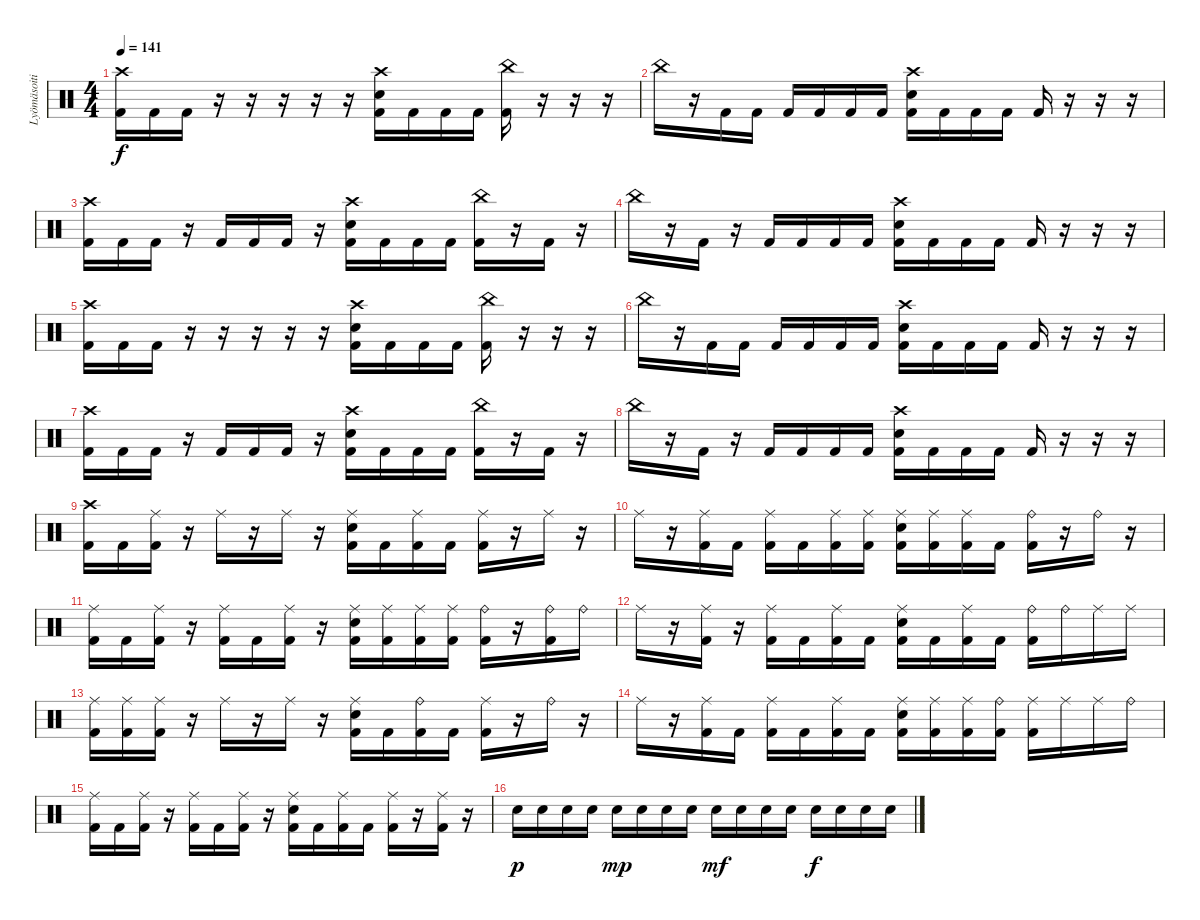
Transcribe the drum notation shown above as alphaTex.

\track ("Lyömäsoitin" "Lyömäsoiti") {instrument percussion}
\staff {score}
\articulation defaults
\ts (4 4)
\tempo 141
\clef neutral
\ks c
("Crash high (hit)" "Kick (hit) 2").16{dy f} "Kick (hit) 2".16 "Kick (hit) 2".16 r.16 r.16 r.16 r.16 r.16 ("Crash high (hit)" "Electric Snare (hit)" "Kick (hit) 2").16 "Kick (hit) 2".16 "Kick (hit) 2".16 "Kick (hit) 2".16 ("China (hit)" "Kick (hit) 2").16 r.16 r.16 r.16 |
"China (hit)".16 r.16 "Kick (hit) 2".16 "Kick (hit) 2".16 "Kick (hit) 2".16 "Kick (hit) 2".16 "Kick (hit) 2".16 "Kick (hit) 2".16 ("Crash high (hit)" "Electric Snare (hit)" "Kick (hit) 2").16 "Kick (hit) 2".16 "Kick (hit) 2".16 "Kick (hit) 2".16 "Kick (hit) 2".16 r.16 r.16 r.16 |
("Crash high (hit)" "Kick (hit) 2").16 "Kick (hit) 2".16 "Kick (hit) 2".16 r.16 "Kick (hit) 2".16 "Kick (hit) 2".16 "Kick (hit) 2".16 r.16 ("Crash high (hit)" "Electric Snare (hit)" "Kick (hit) 2").16 "Kick (hit) 2".16 "Kick (hit) 2".16 "Kick (hit) 2".16 ("China (hit)" "Kick (hit) 2").16 r.16 "Kick (hit) 2".16 r.16 |
"China (hit)".16 r.16 "Kick (hit) 2".16 r.16 "Kick (hit) 2".16 "Kick (hit) 2".16 "Kick (hit) 2".16 "Kick (hit) 2".16 ("Crash high (hit)" "Electric Snare (hit)" "Kick (hit) 2").16 "Kick (hit) 2".16 "Kick (hit) 2".16 "Kick (hit) 2".16 "Kick (hit) 2".16 r.16 r.16 r.16 |
("Crash high (hit)" "Kick (hit) 2").16 "Kick (hit) 2".16 "Kick (hit) 2".16 r.16 r.16 r.16 r.16 r.16 ("Crash high (hit)" "Electric Snare (hit)" "Kick (hit) 2").16 "Kick (hit) 2".16 "Kick (hit) 2".16 "Kick (hit) 2".16 ("China (hit)" "Kick (hit) 2").16 r.16 r.16 r.16 |
"China (hit)".16 r.16 "Kick (hit) 2".16 "Kick (hit) 2".16 "Kick (hit) 2".16 "Kick (hit) 2".16 "Kick (hit) 2".16 "Kick (hit) 2".16 ("Crash high (hit)" "Electric Snare (hit)" "Kick (hit) 2").16 "Kick (hit) 2".16 "Kick (hit) 2".16 "Kick (hit) 2".16 "Kick (hit) 2".16 r.16 r.16 r.16 |
("Crash high (hit)" "Kick (hit) 2").16 "Kick (hit) 2".16 "Kick (hit) 2".16 r.16 "Kick (hit) 2".16 "Kick (hit) 2".16 "Kick (hit) 2".16 r.16 ("Crash high (hit)" "Electric Snare (hit)" "Kick (hit) 2").16 "Kick (hit) 2".16 "Kick (hit) 2".16 "Kick (hit) 2".16 ("China (hit)" "Kick (hit) 2").16 r.16 "Kick (hit) 2".16 r.16 |
"China (hit)".16 r.16 "Kick (hit) 2".16 r.16 "Kick (hit) 2".16 "Kick (hit) 2".16 "Kick (hit) 2".16 "Kick (hit) 2".16 ("Crash high (hit)" "Electric Snare (hit)" "Kick (hit) 2").16 "Kick (hit) 2".16 "Kick (hit) 2".16 "Kick (hit) 2".16 "Kick (hit) 2".16 r.16 r.16 r.16 |
("Crash high (hit)" "Kick (hit) 2").16 "Kick (hit) 2".16 ("Ride (middle)" "Kick (hit) 2").16 r.16 "Ride (middle)".16 r.16 "Ride (middle)".16 r.16 ("Ride (middle)" "Electric Snare (hit)" "Kick (hit) 2").16 "Kick (hit) 2".16 ("Ride (middle)" "Kick (hit) 2").16 "Kick (hit) 2".16 ("Ride (middle)" "Kick (hit) 2").16 r.16 "Ride (middle)".16 r.16 |
"Ride (middle)".16 r.16 ("Ride (middle)" "Kick (hit) 2").16 "Kick (hit) 2".16 ("Ride (middle)" "Kick (hit) 2").16 "Kick (hit) 2".16 ("Ride (middle)" "Kick (hit) 2").16 ("Ride (middle)" "Kick (hit) 2").16 ("Ride (middle)" "Electric Snare (hit)" "Kick (hit) 2").16 ("Ride (middle)" "Kick (hit) 2").16 ("Ride (middle)" "Kick (hit) 2").16 "Kick (hit) 2".16 ("Ride (bell)" "Kick (hit) 2").16 r.16 "Ride (bell)".16 r.16 |
("Ride (middle)" "Kick (hit) 2").16 "Kick (hit) 2".16 ("Ride (middle)" "Kick (hit) 2").16 r.16 ("Ride (middle)" "Kick (hit) 2").16 "Kick (hit) 2".16 ("Ride (middle)" "Kick (hit) 2").16 r.16 ("Ride (middle)" "Electric Snare (hit)" "Kick (hit) 2").16 ("Ride (middle)" "Kick (hit) 2").16 ("Ride (middle)" "Kick (hit) 2").16 ("Ride (middle)" "Kick (hit) 2").16 ("Ride (bell)" "Kick (hit) 2").16 r.16 ("Ride (bell)" "Kick (hit) 2").16 "Ride (bell)".16 |
"Ride (middle)".16 r.16 ("Ride (middle)" "Kick (hit) 2").16 r.16 ("Ride (middle)" "Kick (hit) 2").16 "Kick (hit) 2".16 ("Ride (middle)" "Kick (hit) 2").16 "Kick (hit) 2".16 ("Ride (middle)" "Electric Snare (hit)" "Kick (hit) 2").16 "Kick (hit) 2".16 ("Ride (middle)" "Kick (hit) 2").16 "Kick (hit) 2".16 ("Ride (bell)" "Kick (hit) 2").16 "Ride (bell)".16 "Ride (middle)".16 "Ride (middle)".16 |
("Ride (middle)" "Kick (hit) 2").16 ("Ride (middle)" "Kick (hit) 2").16 ("Ride (middle)" "Kick (hit) 2").16 r.16 "Ride (middle)".16 r.16 "Ride (middle)".16 r.16 ("Ride (middle)" "Electric Snare (hit)" "Kick (hit) 2").16 "Kick (hit) 2".16 ("Ride (bell)" "Kick (hit) 2").16 "Kick (hit) 2".16 ("Ride (middle)" "Kick (hit) 2").16 r.16 "Ride (bell)".16 r.16 |
"Ride (middle)".16 r.16 ("Ride (middle)" "Kick (hit) 2").16 "Kick (hit) 2".16 ("Ride (middle)" "Kick (hit) 2").16 "Kick (hit) 2".16 ("Ride (middle)" "Kick (hit) 2").16 "Kick (hit) 2".16 ("Ride (middle)" "Electric Snare (hit)" "Kick (hit) 2").16 ("Ride (middle)" "Kick (hit) 2").16 ("Ride (middle)" "Kick (hit) 2").16 ("Ride (bell)" "Kick (hit) 2").16 ("Ride (middle)" "Kick (hit) 2").16 "Ride (middle)".16 "Ride (middle)".16 "Ride (bell)".16 |
("Ride (middle)" "Kick (hit) 2").16 "Kick (hit) 2".16 ("Ride (middle)" "Kick (hit) 2").16 r.16 ("Ride (middle)" "Kick (hit) 2").16 "Kick (hit) 2".16 ("Ride (middle)" "Kick (hit) 2").16 r.16 ("Ride (middle)" "Electric Snare (hit)" "Kick (hit) 2").16 "Kick (hit) 2".16 ("Ride (middle)" "Kick (hit) 2").16 "Kick (hit) 2".16 ("Ride (middle)" "Kick (hit) 2").16 r.16 ("Ride (middle)" "Kick (hit) 2").16 r.16 |
"Snare (hit) 2".16{dy p} "Snare (hit) 2".16 "Snare (hit) 2".16 "Snare (hit) 2".16 "Snare (hit) 2".16{dy mp} "Snare (hit) 2".16 "Snare (hit) 2".16 "Snare (hit) 2".16 "Snare (hit) 2".16{dy mf} "Snare (hit) 2".16 "Snare (hit) 2".16 "Snare (hit) 2".16 "Snare (hit) 2".16{dy f} "Snare (hit) 2".16 "Snare (hit) 2".16 "Snare (hit) 2".16
